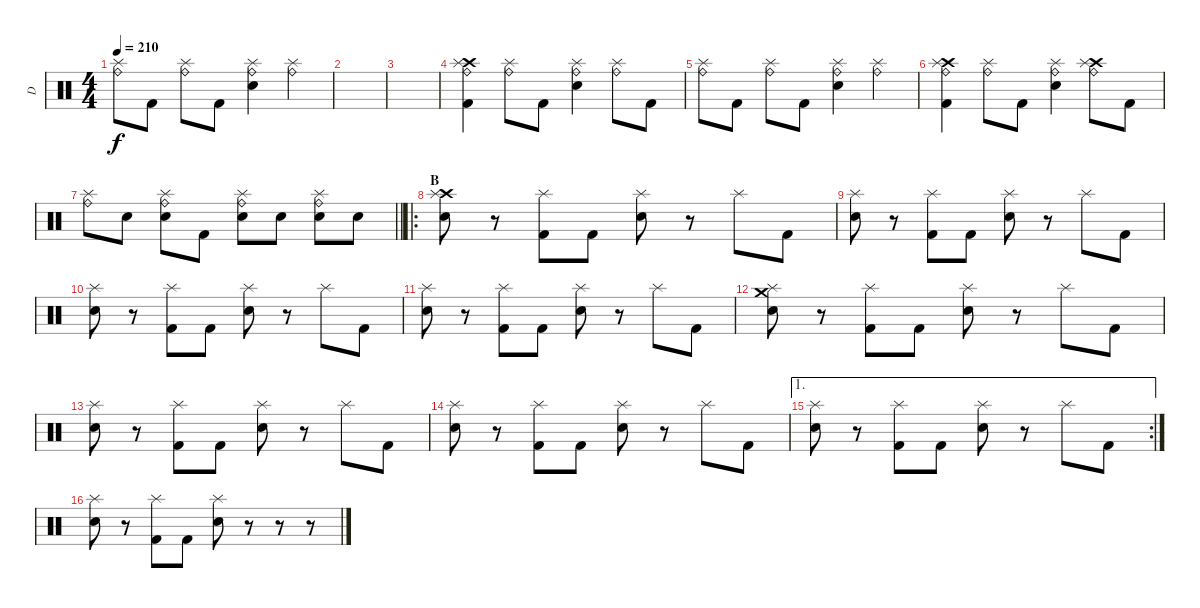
\track ("D" "D") {instrument percussion}
\staff {score}
\articulation defaults
\ts (4 4)
\tempo 210
\clef neutral
\ks c
("Ride (bell)" "Splash (hit)").8{dy f} "Kick (hit) 2".8 ("Ride (bell)" "Splash (hit)").8 "Kick (hit) 2".8 ("Electric Snare (hit)" "Ride (bell)" "Splash (hit)").4 ("Ride (bell)" "Splash (hit)").4 |
|
|
("Crash high (hit)" "Kick (hit) 2" "Ride (bell)" "Splash (hit)").4 ("Ride (bell)" "Splash (hit)").8 "Kick (hit) 2".8 ("Electric Snare (hit)" "Ride (bell)" "Splash (hit)").4 ("Ride (bell)" "Splash (hit)").8 "Kick (hit) 2".8 |
("Ride (bell)" "Splash (hit)").8 "Kick (hit) 2".8 ("Ride (bell)" "Splash (hit)").8 "Kick (hit) 2".8 ("Electric Snare (hit)" "Ride (bell)" "Splash (hit)").4 ("Ride (bell)" "Splash (hit)").4 |
("Crash high (hit)" "Kick (hit) 2" "Ride (bell)" "Splash (hit)").4 ("Ride (bell)" "Splash (hit)").8 "Kick (hit) 2".8 ("Electric Snare (hit)" "Ride (bell)" "Splash (hit)").4 ("Crash high (hit)" "Ride (bell)" "Splash (hit)").8 "Kick (hit) 2".8 |
\barLineRight lightlight
("Ride (bell)" "Splash (hit)").8 "Electric Snare (hit)".8 ("Electric Snare (hit)" "Ride (bell)" "Splash (hit)").8 "Kick (hit) 2".8 ("Electric Snare (hit)" "Ride (bell)" "Splash (hit)").8 "Electric Snare (hit)".8 ("Electric Snare (hit)" "Ride (bell)" "Splash (hit)").8 "Electric Snare (hit)".8 |
\ro
\section ("" "B")
("Crash high (hit)" "Electric Snare (hit)" "Splash (hit)").8 r.8 ("Kick (hit) 2" "Splash (hit)").8 "Kick (hit) 2".8 ("Electric Snare (hit)" "Splash (hit)").8 r.8 "Splash (hit)".8 "Kick (hit) 2".8 |
("Electric Snare (hit)" "Splash (hit)").8 r.8 ("Kick (hit) 2" "Splash (hit)").8 "Kick (hit) 2".8 ("Electric Snare (hit)" "Splash (hit)").8 r.8 "Splash (hit)".8 "Kick (hit) 2".8 |
("Electric Snare (hit)" "Splash (hit)").8 r.8 ("Kick (hit) 2" "Splash (hit)").8 "Kick (hit) 2".8 ("Electric Snare (hit)" "Splash (hit)").8 r.8 "Splash (hit)".8 "Kick (hit) 2".8 |
("Electric Snare (hit)" "Splash (hit)").8 r.8 ("Kick (hit) 2" "Splash (hit)").8 "Kick (hit) 2".8 ("Electric Snare (hit)" "Splash (hit)").8 r.8 "Splash (hit)".8 "Kick (hit) 2".8 |
("Crash medium (hit)" "Electric Snare (hit)" "Splash (hit)").8 r.8 ("Kick (hit) 2" "Splash (hit)").8 "Kick (hit) 2".8 ("Electric Snare (hit)" "Splash (hit)").8 r.8 "Splash (hit)".8 "Kick (hit) 2".8 |
("Electric Snare (hit)" "Splash (hit)").8 r.8 ("Kick (hit) 2" "Splash (hit)").8 "Kick (hit) 2".8 ("Electric Snare (hit)" "Splash (hit)").8 r.8 "Splash (hit)".8 "Kick (hit) 2".8 |
("Electric Snare (hit)" "Splash (hit)").8 r.8 ("Kick (hit) 2" "Splash (hit)").8 "Kick (hit) 2".8 ("Electric Snare (hit)" "Splash (hit)").8 r.8 "Splash (hit)".8 "Kick (hit) 2".8 |
\ae 1
\rc 2
("Electric Snare (hit)" "Splash (hit)").8 r.8 ("Kick (hit) 2" "Splash (hit)").8 "Kick (hit) 2".8 ("Electric Snare (hit)" "Splash (hit)").8 r.8 "Splash (hit)".8 "Kick (hit) 2".8 |
("Electric Snare (hit)" "Splash (hit)").8 r.8 ("Kick (hit) 2" "Splash (hit)").8 "Kick (hit) 2".8 ("Electric Snare (hit)" "Splash (hit)").8 r.8 r.8 r.8
